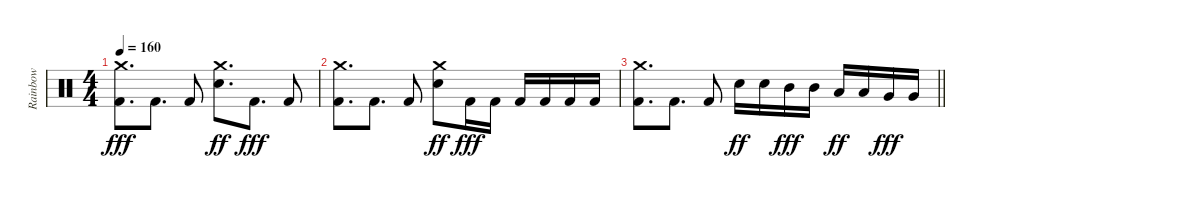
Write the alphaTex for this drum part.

\track ("Rainbow" "Rainbow") {instrument percussion}
\staff {score}
\articulation defaults
\ts (4 4)
\tempo 160
\clef neutral
\ks c
("Crash medium (hit)" "Kick (hit) 2").8{d dy fff} "Kick (hit) 2".8{d} "Kick (hit) 2".8 ("Crash medium (hit)" "Electric Snare (hit)").8{d dy ff} "Kick (hit) 2".8{d dy fff} "Kick (hit) 2".8 |
("Crash medium (hit)" "Kick (hit) 2").8{d} "Kick (hit) 2".8{d} "Kick (hit) 2".8 ("Crash medium (hit)" "Electric Snare (hit)").8{dy ff} "Kick (hit) 2".16{dy fff} "Kick (hit) 2".16 "Kick (hit) 2".16 "Kick (hit) 2".16 "Kick (hit) 2".16 "Kick (hit) 2".16 |
\barLineRight lightlight
("Crash medium (hit)" "Kick (hit) 2").8{d} "Kick (hit) 2".8{d} "Kick (hit) 2".8 "Electric Snare (hit)".16{dy ff} "Electric Snare (hit)".16 "Mid Tom (hit)".16{dy fff} "Mid Tom (hit)".16 "Low Tom (hit)".16{dy ff} "Low Tom (hit)".16 "Very Low Tom (hit)".16{dy fff} "Very Low Tom (hit)".16
